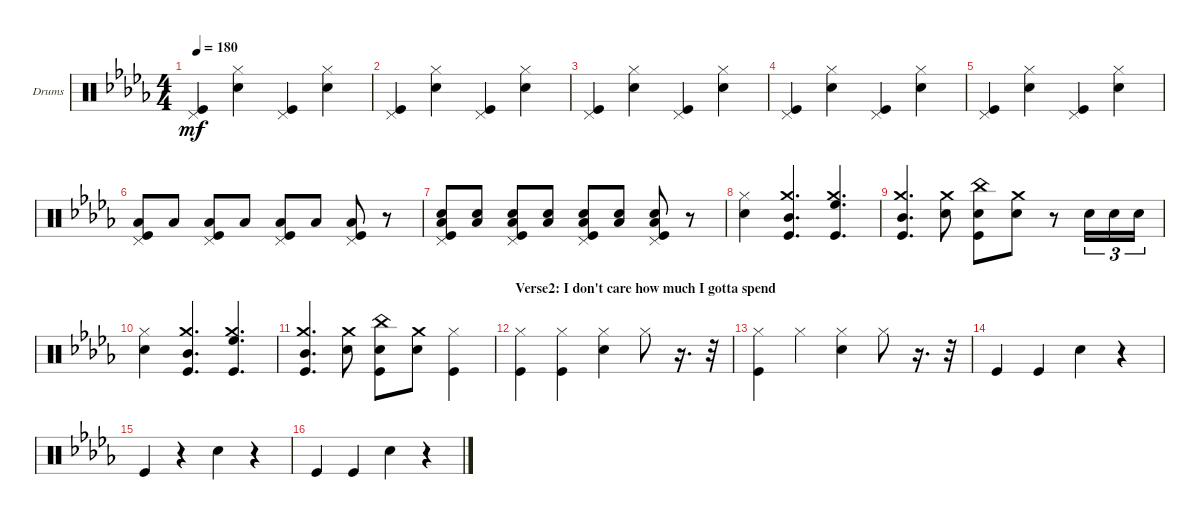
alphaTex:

\bracketExtendMode groupsimilarinstruments
\firstSystemTrackNameOrientation horizontal
\otherSystemsTrackNameOrientation horizontal
\track ("Drums" "Drums") {instrument percussion}
\staff {score}
\articulation defaults
\ts (4 4)
\tempo 180
\clef neutral
\ks bbminor
("Kick (hit)" "Pedal Hi-Hat (hit)").4{dy mf} ("Snare (hit) 2" "Hi-Hat (closed)").4 ("Kick (hit)" "Pedal Hi-Hat (hit)").4 ("Snare (hit) 2" "Hi-Hat (closed)").4 |
("Kick (hit)" "Pedal Hi-Hat (hit)").4 ("Snare (hit) 2" "Hi-Hat (closed)").4 ("Kick (hit)" "Pedal Hi-Hat (hit)").4 ("Snare (hit) 2" "Hi-Hat (closed)").4 |
("Kick (hit)" "Pedal Hi-Hat (hit)").4 ("Snare (hit) 2" "Hi-Hat (closed)").4 ("Kick (hit)" "Pedal Hi-Hat (hit)").4 ("Snare (hit) 2" "Hi-Hat (closed)").4 |
("Kick (hit)" "Pedal Hi-Hat (hit)").4 ("Snare (hit) 2" "Hi-Hat (closed)").4 ("Kick (hit)" "Pedal Hi-Hat (hit)").4 ("Snare (hit) 2" "Hi-Hat (closed)").4 |
("Kick (hit)" "Pedal Hi-Hat (hit)").4 ("Snare (hit) 2" "Hi-Hat (closed)").4 ("Kick (hit)" "Pedal Hi-Hat (hit)").4 ("Snare (hit) 2" "Hi-Hat (closed)").4 |
("Kick (hit)" "Low Tom (hit)" "Pedal Hi-Hat (hit)").8 "Low Tom (hit)".8 ("Kick (hit)" "Low Tom (hit)" "Pedal Hi-Hat (hit)").8 "Low Tom (hit)".8 ("Kick (hit)" "Low Tom (hit)" "Pedal Hi-Hat (hit)").8 "Low Tom (hit)".8 ("Kick (hit)" "Low Tom (hit)" "Pedal Hi-Hat (hit)").8 r.8 |
("Kick (hit)" "Snare (hit) 2" "Low Tom (hit)" "Pedal Hi-Hat (hit)").8 ("Low Tom (hit)" "Snare (hit) 2").8 ("Kick (hit)" "Low Tom (hit)" "Pedal Hi-Hat (hit)" "Snare (hit) 2").8 ("Snare (hit) 2" "Low Tom (hit)").8 ("Kick (hit)" "Snare (hit) 2" "Pedal Hi-Hat (hit)" "Low Tom (hit)").8 ("Snare (hit) 2" "Low Tom (hit)").8 ("Snare (hit) 2" "Kick (hit)" "Pedal Hi-Hat (hit)" "Low Tom (hit)").8 r.8 |
("Snare (hit) 2" "Hi-Hat (closed)").4 ("Crash medium (hit)" "Mid Tom (hit)" "Kick (hit)").4{d} ("Crash medium (hit)" "High Floor Tom (hit)" "Kick (hit)").4{d} |
("Kick (hit)" "Crash medium (hit)" "Mid Tom (hit)").4{d} ("Crash medium (hit)" "Snare (hit) 2").8 ("Kick (hit)" "China (hit)" "Snare (hit) 2").8 ("Snare (hit) 2" "Crash medium (hit)").8 r.8 "Snare (hit) 2".16{tu (3 2)} "Snare (hit) 2".16{tu (3 2)} "Snare (hit) 2".16{tu (3 2)} |
("Snare (hit) 2" "Hi-Hat (closed)").4 ("Kick (hit)" "Mid Tom (hit)" "Crash medium (hit)").4{d} ("Kick (hit)" "High Floor Tom (hit)" "Crash medium (hit)").4{d} |
("Kick (hit)" "Crash medium (hit)" "Mid Tom (hit)").4{d} ("Snare (hit) 2" "Crash medium (hit)").8 ("Kick (hit)" "China (hit)" "Snare (hit) 2").8 ("Snare (hit) 2" "Crash medium (hit)").8 ("Hi-Hat (closed)" "Kick (hit)").4 |
\section ("" "Verse2: I don't care how much I gotta spend")
("Kick (hit)" "Hi-Hat (closed)").4 ("Kick (hit)" "Hi-Hat (closed)").4 ("Snare (hit) 2" "Hi-Hat (closed)").4 "Hi-Hat (closed)".8 r.16{d} r.32 |
("Kick (hit)" "Hi-Hat (closed)").4 "Hi-Hat (closed)".4 ("Snare (hit) 2" "Hi-Hat (closed)").4 "Hi-Hat (closed)".8 r.16{d} r.32 |
"Kick (hit)".4 "Kick (hit)".4 "Snare (hit) 2".4 r.4 |
"Kick (hit)".4 r.4 "Snare (hit) 2".4 r.4 |
"Kick (hit)".4 "Kick (hit)".4 "Snare (hit) 2".4 r.4
